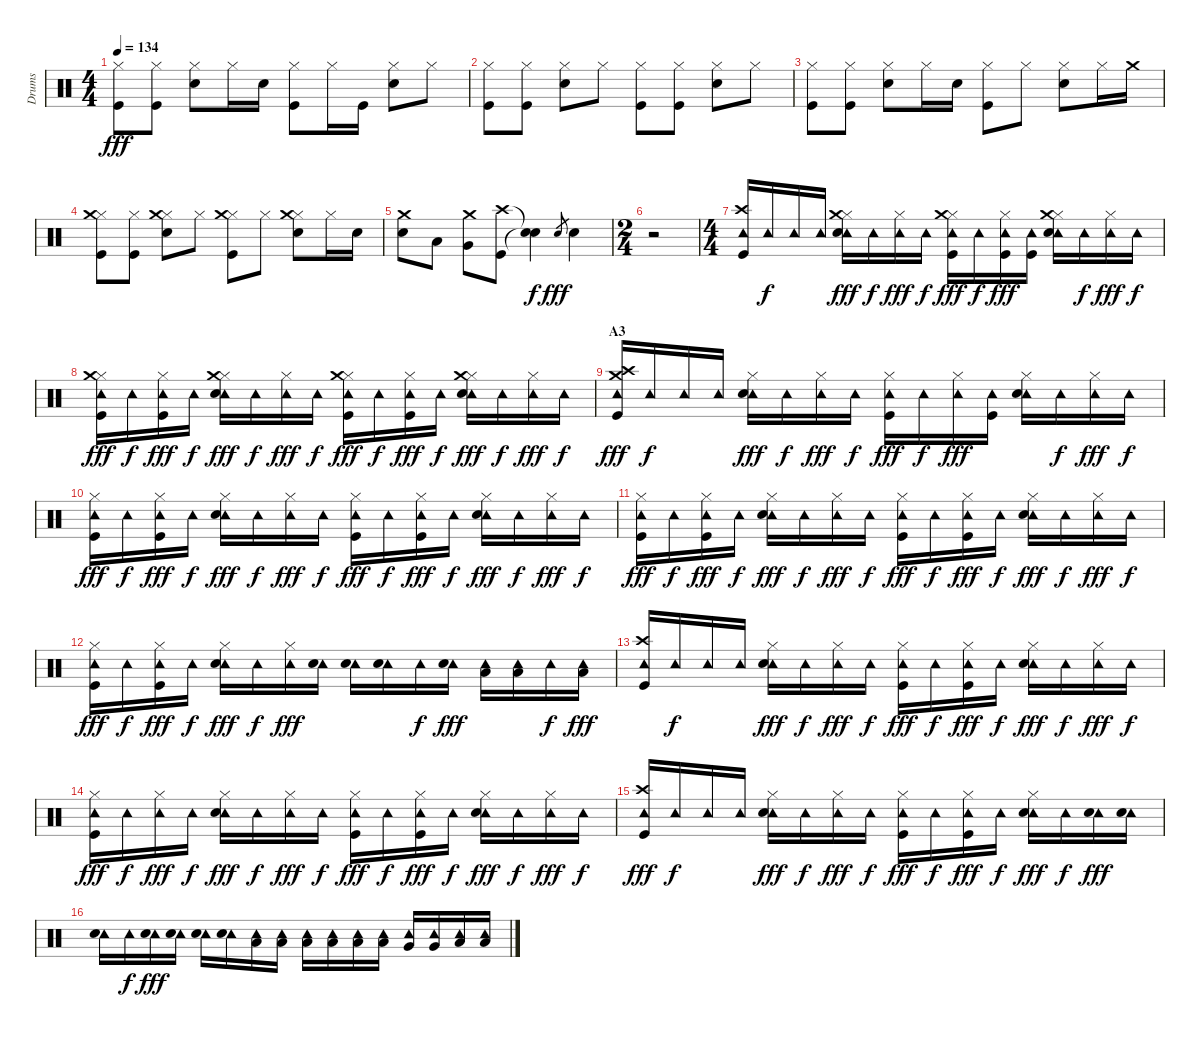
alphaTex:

\track ("Drums" "Drums") {instrument percussion}
\staff {score}
\articulation defaults
\ts (4 4)
\tempo 134
\clef neutral
\ks c
("Hi-Hat (closed)" "Kick (hit)").8{dy fff} ("Hi-Hat (closed)" "Kick (hit)").8 ("Hi-Hat (closed)" "Snare (hit) 2").8 "Hi-Hat (closed)".16 "Snare (hit) 2".16 ("Hi-Hat (closed)" "Kick (hit)").8 "Hi-Hat (closed)".16 "Kick (hit)".16 ("Hi-Hat (closed)" "Snare (hit) 2").8 "Hi-Hat (closed)".8 |
("Hi-Hat (closed)" "Kick (hit)").8 ("Hi-Hat (closed)" "Kick (hit)").8 ("Hi-Hat (closed)" "Snare (hit) 2").8 "Hi-Hat (closed)".8 ("Hi-Hat (closed)" "Kick (hit)").8 ("Hi-Hat (closed)" "Kick (hit)").8 ("Hi-Hat (closed)" "Snare (hit) 2").8 "Hi-Hat (closed)".8 |
("Hi-Hat (closed)" "Kick (hit)").8 ("Hi-Hat (closed)" "Kick (hit)").8 ("Hi-Hat (closed)" "Snare (hit) 2").8 "Hi-Hat (closed)".16 "Snare (hit) 2".16 ("Hi-Hat (closed)" "Kick (hit)").8 "Hi-Hat (closed)".8 ("Hi-Hat (closed)" "Snare (hit) 2").8 "Hi-Hat (closed)".16 "Crash medium (hit)".16 |
("Hi-Hat (closed)" "Crash medium (hit)" "Kick (hit)").8 ("Hi-Hat (closed)" "Kick (hit)").8 ("Hi-Hat (closed)" "Crash medium (hit)" "Snare (hit) 2").8 "Hi-Hat (closed)".8 ("Hi-Hat (closed)" "Crash medium (hit)" "Kick (hit)").8 "Hi-Hat (closed)".8 ("Hi-Hat (closed)" "Crash medium (hit)" "Snare (hit) 2").8 "Hi-Hat (closed)".16 "Snare (hit) 2".16 |
("Crash medium (hit)" "Snare (hit) 2").8 "Low Tom (hit)".8 ("Crash medium (hit)" "Very Low Tom (hit)").8 ("Crash high (hit)" "Kick (hit)").8 ("Snare (hit)"{t} "Snare (hit)"{t}).4{dy f} "Snare (hit) 2".8{gr dy fff} "Snare (hit) 2".4 |
\ts (2 4)
r.2 |
\ts (4 4)
("Crash high (hit)" "Tambourine (hit)" "Kick (hit)").16 "Tambourine (hit)".16{dy f} "Tambourine (hit)".16 "Tambourine (hit)".16 ("Hi-Hat (closed)" "Tambourine (hit)" "Crash medium (hit)" "Snare (hit) 2").16{dy fff} "Tambourine (hit)".16{dy f} ("Hi-Hat (closed)" "Tambourine (hit)").16{dy fff} "Tambourine (hit)".16{dy f} ("Hi-Hat (closed)" "Tambourine (hit)" "Crash medium (hit)" "Kick (hit)").16{dy fff} "Tambourine (hit)".16{dy f} ("Hi-Hat (closed)" "Tambourine (hit)" "Kick (hit)").16{dy fff} ("Tambourine (hit)" "Kick (hit)").16 ("Hi-Hat (closed)" "Tambourine (hit)" "Crash medium (hit)" "Snare (hit) 2").16 "Tambourine (hit)".16{dy f} ("Hi-Hat (closed)" "Tambourine (hit)").16{dy fff} "Tambourine (hit)".16{dy f} |
("Hi-Hat (closed)" "Tambourine (hit)" "Crash medium (hit)" "Kick (hit)").16{dy fff} "Tambourine (hit)".16{dy f} ("Hi-Hat (closed)" "Tambourine (hit)" "Kick (hit)").16{dy fff} "Tambourine (hit)".16{dy f} ("Hi-Hat (closed)" "Tambourine (hit)" "Crash medium (hit)" "Snare (hit) 2").16{dy fff} "Tambourine (hit)".16{dy f} ("Hi-Hat (closed)" "Tambourine (hit)").16{dy fff} "Tambourine (hit)".16{dy f} ("Hi-Hat (closed)" "Tambourine (hit)" "Crash medium (hit)" "Kick (hit)").16{dy fff} "Tambourine (hit)".16{dy f} ("Hi-Hat (closed)" "Tambourine (hit)" "Kick (hit)").16{dy fff} "Tambourine (hit)".16{dy f} ("Hi-Hat (closed)" "Tambourine (hit)" "Crash medium (hit)" "Snare (hit) 2").16{dy fff} "Tambourine (hit)".16{dy f} ("Hi-Hat (closed)" "Tambourine (hit)").16{dy fff} "Tambourine (hit)".16{dy f} |
\section ("" "A3")
("Crash high (hit)" "Tambourine (hit)" "Crash medium (hit)" "Kick (hit)").16{dy fff} "Tambourine (hit)".16{dy f} "Tambourine (hit)".16 "Tambourine (hit)".16 ("Hi-Hat (closed)" "Tambourine (hit)" "Snare (hit) 2").16{dy fff} "Tambourine (hit)".16{dy f} ("Hi-Hat (closed)" "Tambourine (hit)").16{dy fff} "Tambourine (hit)".16{dy f} ("Hi-Hat (closed)" "Tambourine (hit)" "Kick (hit)").16{dy fff} "Tambourine (hit)".16{dy f} ("Hi-Hat (closed)" "Tambourine (hit)").16{dy fff} ("Tambourine (hit)" "Kick (hit)").16 ("Hi-Hat (closed)" "Tambourine (hit)" "Snare (hit) 2").16 "Tambourine (hit)".16{dy f} ("Hi-Hat (closed)" "Tambourine (hit)").16{dy fff} "Tambourine (hit)".16{dy f} |
("Hi-Hat (closed)" "Tambourine (hit)" "Kick (hit)").16{dy fff} "Tambourine (hit)".16{dy f} ("Hi-Hat (closed)" "Tambourine (hit)" "Kick (hit)").16{dy fff} "Tambourine (hit)".16{dy f} ("Hi-Hat (closed)" "Tambourine (hit)" "Snare (hit) 2").16{dy fff} "Tambourine (hit)".16{dy f} ("Hi-Hat (closed)" "Tambourine (hit)").16{dy fff} "Tambourine (hit)".16{dy f} ("Hi-Hat (closed)" "Tambourine (hit)" "Kick (hit)").16{dy fff} "Tambourine (hit)".16{dy f} ("Hi-Hat (closed)" "Tambourine (hit)" "Kick (hit)").16{dy fff} "Tambourine (hit)".16{dy f} ("Hi-Hat (closed)" "Tambourine (hit)" "Snare (hit) 2").16{dy fff} "Tambourine (hit)".16{dy f} ("Hi-Hat (closed)" "Tambourine (hit)").16{dy fff} "Tambourine (hit)".16{dy f} |
("Hi-Hat (closed)" "Tambourine (hit)" "Kick (hit)").16{dy fff} "Tambourine (hit)".16{dy f} ("Hi-Hat (closed)" "Tambourine (hit)" "Kick (hit)").16{dy fff} "Tambourine (hit)".16{dy f} ("Hi-Hat (closed)" "Tambourine (hit)" "Snare (hit) 2").16{dy fff} "Tambourine (hit)".16{dy f} ("Hi-Hat (closed)" "Tambourine (hit)").16{dy fff} "Tambourine (hit)".16{dy f} ("Hi-Hat (closed)" "Tambourine (hit)" "Kick (hit)").16{dy fff} "Tambourine (hit)".16{dy f} ("Hi-Hat (closed)" "Tambourine (hit)" "Kick (hit)").16{dy fff} "Tambourine (hit)".16{dy f} ("Hi-Hat (closed)" "Tambourine (hit)" "Snare (hit) 2").16{dy fff} "Tambourine (hit)".16{dy f} ("Hi-Hat (closed)" "Tambourine (hit)").16{dy fff} "Tambourine (hit)".16{dy f} |
("Hi-Hat (closed)" "Tambourine (hit)" "Kick (hit)").16{dy fff} "Tambourine (hit)".16{dy f} ("Hi-Hat (closed)" "Tambourine (hit)" "Kick (hit)").16{dy fff} "Tambourine (hit)".16{dy f} ("Hi-Hat (closed)" "Tambourine (hit)" "Snare (hit) 2").16{dy fff} "Tambourine (hit)".16{dy f} ("Hi-Hat (closed)" "Tambourine (hit)").16{dy fff} ("Tambourine (hit)" "Snare (hit) 2").16 ("Tambourine (hit)" "Snare (hit) 2").16 ("Tambourine (hit)" "Snare (hit) 2").16 "Tambourine (hit)".16{dy f} ("Tambourine (hit)" "Snare (hit) 2").16{dy fff} ("Tambourine (hit)" "Low Tom (hit)").16 ("Tambourine (hit)" "Low Tom (hit)").16 "Tambourine (hit)".16{dy f} ("Tambourine (hit)" "Low Tom (hit)").16{dy fff} |
("Crash high (hit)" "Tambourine (hit)" "Kick (hit)").16 "Tambourine (hit)".16{dy f} "Tambourine (hit)".16 "Tambourine (hit)".16 ("Hi-Hat (closed)" "Tambourine (hit)" "Snare (hit) 2").16{dy fff} "Tambourine (hit)".16{dy f} ("Hi-Hat (closed)" "Tambourine (hit)").16{dy fff} "Tambourine (hit)".16{dy f} ("Hi-Hat (closed)" "Tambourine (hit)" "Kick (hit)").16{dy fff} "Tambourine (hit)".16{dy f} ("Hi-Hat (closed)" "Tambourine (hit)" "Kick (hit)").16{dy fff} "Tambourine (hit)".16{dy f} ("Hi-Hat (closed)" "Tambourine (hit)" "Snare (hit) 2").16{dy fff} "Tambourine (hit)".16{dy f} ("Hi-Hat (closed)" "Tambourine (hit)").16{dy fff} "Tambourine (hit)".16{dy f} |
("Hi-Hat (closed)" "Tambourine (hit)" "Kick (hit)").16{dy fff} "Tambourine (hit)".16{dy f} ("Hi-Hat (closed)" "Tambourine (hit)").16{dy fff} "Tambourine (hit)".16{dy f} ("Hi-Hat (closed)" "Tambourine (hit)" "Snare (hit) 2").16{dy fff} "Tambourine (hit)".16{dy f} ("Hi-Hat (closed)" "Tambourine (hit)").16{dy fff} "Tambourine (hit)".16{dy f} ("Hi-Hat (closed)" "Tambourine (hit)" "Kick (hit)").16{dy fff} "Tambourine (hit)".16{dy f} ("Hi-Hat (closed)" "Tambourine (hit)" "Kick (hit)").16{dy fff} "Tambourine (hit)".16{dy f} ("Hi-Hat (closed)" "Tambourine (hit)" "Snare (hit) 2").16{dy fff} "Tambourine (hit)".16{dy f} ("Hi-Hat (closed)" "Tambourine (hit)").16{dy fff} "Tambourine (hit)".16{dy f} |
("Crash high (hit)" "Tambourine (hit)" "Kick (hit)").16{dy fff} "Tambourine (hit)".16{dy f} "Tambourine (hit)".16 "Tambourine (hit)".16 ("Hi-Hat (closed)" "Tambourine (hit)" "Snare (hit) 2").16{dy fff} "Tambourine (hit)".16{dy f} ("Hi-Hat (closed)" "Tambourine (hit)").16{dy fff} "Tambourine (hit)".16{dy f} ("Hi-Hat (closed)" "Tambourine (hit)" "Kick (hit)").16{dy fff} "Tambourine (hit)".16{dy f} ("Hi-Hat (closed)" "Tambourine (hit)" "Kick (hit)").16{dy fff} "Tambourine (hit)".16{dy f} ("Hi-Hat (closed)" "Tambourine (hit)" "Snare (hit) 2").16{dy fff} "Tambourine (hit)".16{dy f} ("Tambourine (hit)" "Snare (hit) 2").16{dy fff} ("Tambourine (hit)" "Snare (hit) 2").16 |
("Tambourine (hit)" "Snare (hit) 2").16 "Tambourine (hit)".16{dy f} ("Tambourine (hit)" "Snare (hit) 2").16{dy fff} ("Tambourine (hit)" "Snare (hit) 2").16 ("Tambourine (hit)" "Snare (hit) 2").16 ("Tambourine (hit)" "Snare (hit) 2").16 ("Tambourine (hit)" "Low Tom (hit)").16 ("Tambourine (hit)" "Low Tom (hit)").16 ("Tambourine (hit)" "Low Tom (hit)").16 ("Tambourine (hit)" "Low Tom (hit)").16 ("Tambourine (hit)" "Low Tom (hit)").16 ("Tambourine (hit)" "Low Tom (hit)").16 ("Tambourine (hit)" "Very Low Tom (hit)").16 ("Tambourine (hit)" "Very Low Tom (hit)").16 ("Tambourine (hit)" "Low Floor Tom (hit)").16 ("Tambourine (hit)" "Low Floor Tom (hit)").16
